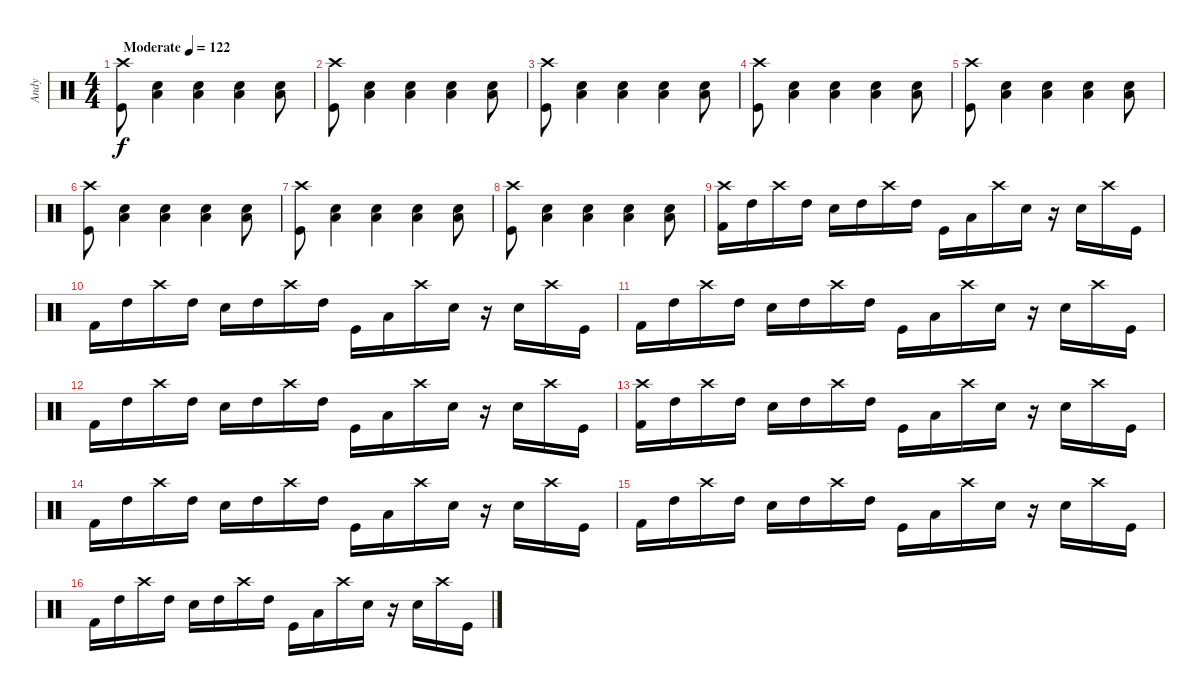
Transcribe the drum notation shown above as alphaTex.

\track ("Andy" "Andy") {instrument percussion}
\staff {score}
\articulation defaults
\ts (4 4)
\tempo (122 "Moderate")
\clef neutral
\ks c
("Kick (hit)" "Crash high (hit)").8{dy f} ("Snare (hit) 2" "Low Floor Tom (hit)").4 ("Snare (hit) 2" "Low Floor Tom (hit)").4 ("Snare (hit) 2" "Low Floor Tom (hit)").4 ("Snare (hit) 2" "Low Floor Tom (hit)").8 |
("Kick (hit)" "Crash high (hit)").8 ("Snare (hit) 2" "Low Floor Tom (hit)").4 ("Snare (hit) 2" "Low Floor Tom (hit)").4 ("Snare (hit) 2" "Low Floor Tom (hit)").4 ("Snare (hit) 2" "Low Floor Tom (hit)").8 |
("Kick (hit)" "Crash high (hit)").8 ("Snare (hit) 2" "Low Floor Tom (hit)").4 ("Snare (hit) 2" "Low Floor Tom (hit)").4 ("Snare (hit) 2" "Low Floor Tom (hit)").4 ("Snare (hit) 2" "Low Floor Tom (hit)").8 |
("Kick (hit)" "Crash high (hit)").8 ("Snare (hit) 2" "Low Floor Tom (hit)").4 ("Snare (hit) 2" "Low Floor Tom (hit)").4 ("Snare (hit) 2" "Low Floor Tom (hit)").4 ("Snare (hit) 2" "Low Floor Tom (hit)").8 |
("Kick (hit)" "Crash high (hit)").8 ("Snare (hit) 2" "Low Floor Tom (hit)").4 ("Snare (hit) 2" "Low Floor Tom (hit)").4 ("Snare (hit) 2" "Low Floor Tom (hit)").4 ("Snare (hit) 2" "Low Floor Tom (hit)").8 |
("Kick (hit)" "Crash high (hit)").8 ("Snare (hit) 2" "Low Floor Tom (hit)").4 ("Snare (hit) 2" "Low Floor Tom (hit)").4 ("Snare (hit) 2" "Low Floor Tom (hit)").4 ("Snare (hit) 2" "Low Floor Tom (hit)").8 |
("Kick (hit)" "Crash high (hit)").8 ("Snare (hit) 2" "Low Floor Tom (hit)").4 ("Snare (hit) 2" "Low Floor Tom (hit)").4 ("Snare (hit) 2" "Low Floor Tom (hit)").4 ("Snare (hit) 2" "Low Floor Tom (hit)").8 |
("Kick (hit)" "Crash high (hit)").8 ("Snare (hit) 2" "Low Floor Tom (hit)").4 ("Snare (hit) 2" "Low Floor Tom (hit)").4 ("Snare (hit) 2" "Low Floor Tom (hit)").4 ("Snare (hit) 2" "Low Floor Tom (hit)").8 |
("Crash high (hit)" "Kick (hit) 2").16 "High Tom (hit)".16 "Crash high (hit)".16 "High Tom (hit)".16 "Snare (hit) 2".16 "High Tom (hit)".16 "Crash high (hit)".16 "High Tom (hit)".16 "Kick (hit)".16 "Low Floor Tom (hit)".16 "Crash high (hit)".16 "Snare (hit) 2".16 r.16 "Snare (hit) 2".16 "Crash high (hit)".16 "Kick (hit)".16 |
"Kick (hit) 2".16 "High Tom (hit)".16 "Crash high (hit)".16 "High Tom (hit)".16 "Snare (hit) 2".16 "High Tom (hit)".16 "Crash high (hit)".16 "High Tom (hit)".16 "Kick (hit)".16 "Low Floor Tom (hit)".16 "Crash high (hit)".16 "Snare (hit) 2".16 r.16 "Snare (hit) 2".16 "Crash high (hit)".16 "Kick (hit)".16 |
"Kick (hit) 2".16 "High Tom (hit)".16 "Crash high (hit)".16 "High Tom (hit)".16 "Snare (hit) 2".16 "High Tom (hit)".16 "Crash high (hit)".16 "High Tom (hit)".16 "Kick (hit)".16 "Low Floor Tom (hit)".16 "Crash high (hit)".16 "Snare (hit) 2".16 r.16 "Snare (hit) 2".16 "Crash high (hit)".16 "Kick (hit)".16 |
"Kick (hit) 2".16 "High Tom (hit)".16 "Crash high (hit)".16 "High Tom (hit)".16 "Snare (hit) 2".16 "High Tom (hit)".16 "Crash high (hit)".16 "High Tom (hit)".16 "Kick (hit)".16 "Low Floor Tom (hit)".16 "Crash high (hit)".16 "Snare (hit) 2".16 r.16 "Snare (hit) 2".16 "Crash high (hit)".16 "Kick (hit)".16 |
("Crash high (hit)" "Kick (hit) 2").16 "High Tom (hit)".16 "Crash high (hit)".16 "High Tom (hit)".16 "Snare (hit) 2".16 "High Tom (hit)".16 "Crash high (hit)".16 "High Tom (hit)".16 "Kick (hit)".16 "Low Floor Tom (hit)".16 "Crash high (hit)".16 "Snare (hit) 2".16 r.16 "Snare (hit) 2".16 "Crash high (hit)".16 "Kick (hit)".16 |
"Kick (hit) 2".16 "High Tom (hit)".16 "Crash high (hit)".16 "High Tom (hit)".16 "Snare (hit) 2".16 "High Tom (hit)".16 "Crash high (hit)".16 "High Tom (hit)".16 "Kick (hit)".16 "Low Floor Tom (hit)".16 "Crash high (hit)".16 "Snare (hit) 2".16 r.16 "Snare (hit) 2".16 "Crash high (hit)".16 "Kick (hit)".16 |
"Kick (hit) 2".16 "High Tom (hit)".16 "Crash high (hit)".16 "High Tom (hit)".16 "Snare (hit) 2".16 "High Tom (hit)".16 "Crash high (hit)".16 "High Tom (hit)".16 "Kick (hit)".16 "Low Floor Tom (hit)".16 "Crash high (hit)".16 "Snare (hit) 2".16 r.16 "Snare (hit) 2".16 "Crash high (hit)".16 "Kick (hit)".16 |
"Kick (hit) 2".16 "High Tom (hit)".16 "Crash high (hit)".16 "High Tom (hit)".16 "Snare (hit) 2".16 "High Tom (hit)".16 "Crash high (hit)".16 "High Tom (hit)".16 "Kick (hit)".16 "Low Floor Tom (hit)".16 "Crash high (hit)".16 "Snare (hit) 2".16 r.16 "Snare (hit) 2".16 "Crash high (hit)".16 "Kick (hit)".16
